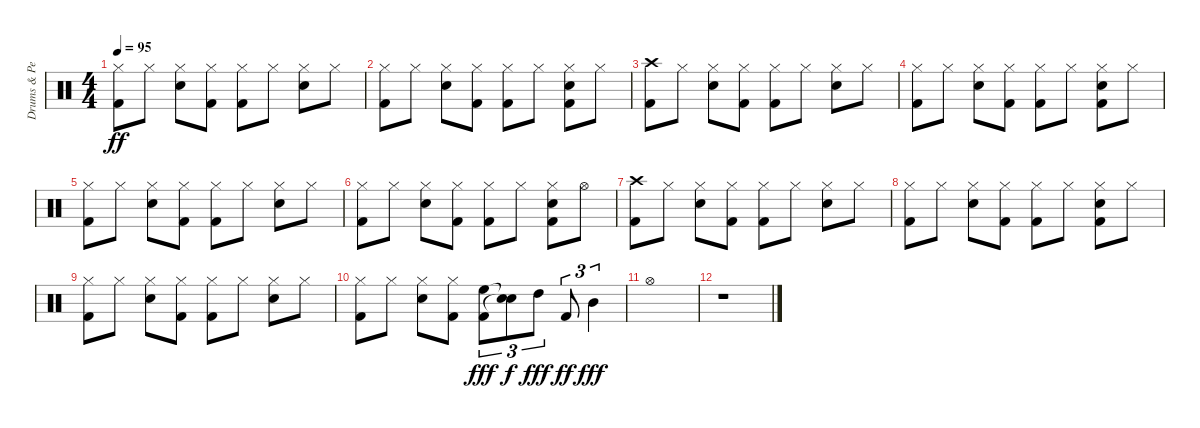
\track ("Drums & Percussion" "Drums & Pe") {instrument percussion}
\staff {score}
\articulation defaults
\ts (4 4)
\tempo 95
\clef neutral
\ks c
("Kick (hit) 2" "Hi-Hat (closed)").8{dy ff} "Hi-Hat (closed)".8 ("Snare (hit) 2" "Hi-Hat (closed)").8 ("Kick (hit) 2" "Hi-Hat (closed)").8 ("Kick (hit) 2" "Hi-Hat (closed)").8 "Hi-Hat (closed)".8 ("Snare (hit) 2" "Hi-Hat (closed)").8 "Hi-Hat (closed)".8 |
("Kick (hit) 2" "Hi-Hat (closed)").8 "Hi-Hat (closed)".8 ("Snare (hit) 2" "Hi-Hat (closed)").8 ("Kick (hit) 2" "Hi-Hat (closed)").8 ("Kick (hit) 2" "Hi-Hat (closed)").8 "Hi-Hat (closed)".8 ("Kick (hit) 2" "Snare (hit) 2" "Hi-Hat (closed)").8 "Hi-Hat (closed)".8 |
("Kick (hit) 2" "Crash high (hit)").8 "Hi-Hat (closed)".8 ("Snare (hit) 2" "Hi-Hat (closed)").8 ("Kick (hit) 2" "Hi-Hat (closed)").8 ("Kick (hit) 2" "Hi-Hat (closed)").8 "Hi-Hat (closed)".8 ("Snare (hit) 2" "Hi-Hat (closed)").8 "Hi-Hat (closed)".8 |
("Kick (hit) 2" "Hi-Hat (closed)").8 "Hi-Hat (closed)".8 ("Snare (hit) 2" "Hi-Hat (closed)").8 ("Kick (hit) 2" "Hi-Hat (closed)").8 ("Kick (hit) 2" "Hi-Hat (closed)").8 "Hi-Hat (closed)".8 ("Kick (hit) 2" "Snare (hit) 2" "Hi-Hat (closed)").8 "Hi-Hat (closed)".8 |
("Kick (hit) 2" "Hi-Hat (closed)").8 "Hi-Hat (closed)".8 ("Snare (hit) 2" "Hi-Hat (closed)").8 ("Kick (hit) 2" "Hi-Hat (closed)").8 ("Kick (hit) 2" "Hi-Hat (closed)").8 "Hi-Hat (closed)".8 ("Snare (hit) 2" "Hi-Hat (closed)").8 "Hi-Hat (closed)".8 |
("Kick (hit) 2" "Hi-Hat (closed)").8 "Hi-Hat (closed)".8 ("Snare (hit) 2" "Hi-Hat (closed)").8 ("Kick (hit) 2" "Hi-Hat (closed)").8 ("Kick (hit) 2" "Hi-Hat (closed)").8 "Hi-Hat (closed)".8 ("Kick (hit) 2" "Snare (hit) 2" "Hi-Hat (closed)").8 "Hi-Hat (open)".8 |
("Kick (hit) 2" "Crash high (hit)").8 "Hi-Hat (closed)".8 ("Snare (hit) 2" "Hi-Hat (closed)").8 ("Kick (hit) 2" "Hi-Hat (closed)").8 ("Kick (hit) 2" "Hi-Hat (closed)").8 "Hi-Hat (closed)".8 ("Snare (hit) 2" "Hi-Hat (closed)").8 "Hi-Hat (closed)".8 |
("Kick (hit) 2" "Hi-Hat (closed)").8 "Hi-Hat (closed)".8 ("Snare (hit) 2" "Hi-Hat (closed)").8 ("Kick (hit) 2" "Hi-Hat (closed)").8 ("Kick (hit) 2" "Hi-Hat (closed)").8 "Hi-Hat (closed)".8 ("Kick (hit) 2" "Snare (hit) 2" "Hi-Hat (closed)").8 "Hi-Hat (closed)".8 |
("Kick (hit) 2" "Hi-Hat (closed)").8 "Hi-Hat (closed)".8 ("Snare (hit) 2" "Hi-Hat (closed)").8 ("Kick (hit) 2" "Hi-Hat (closed)").8 ("Kick (hit) 2" "Hi-Hat (closed)").8 "Hi-Hat (closed)".8 ("Snare (hit) 2" "Hi-Hat (closed)").8 "Hi-Hat (closed)".8 |
("Kick (hit) 2" "Hi-Hat (closed)").8 "Hi-Hat (closed)".8 ("Snare (hit) 2" "Hi-Hat (closed)").8 ("Kick (hit) 2" "Hi-Hat (closed)").8 ("Kick (hit) 2" "High Floor Tom (hit)").8{tu (3 2) dy fff} ("Snare (hit)"{t} "Snare (hit)"{t}).8{tu (3 2) dy f} "High Tom (hit)".8{tu (3 2) dy fff} "Kick (hit) 2".8{tu (3 2) dy ff} "Mid Tom (hit)".4{tu (3 2) dy fff} |
"Hi-Hat (open)".1 |
r.1
